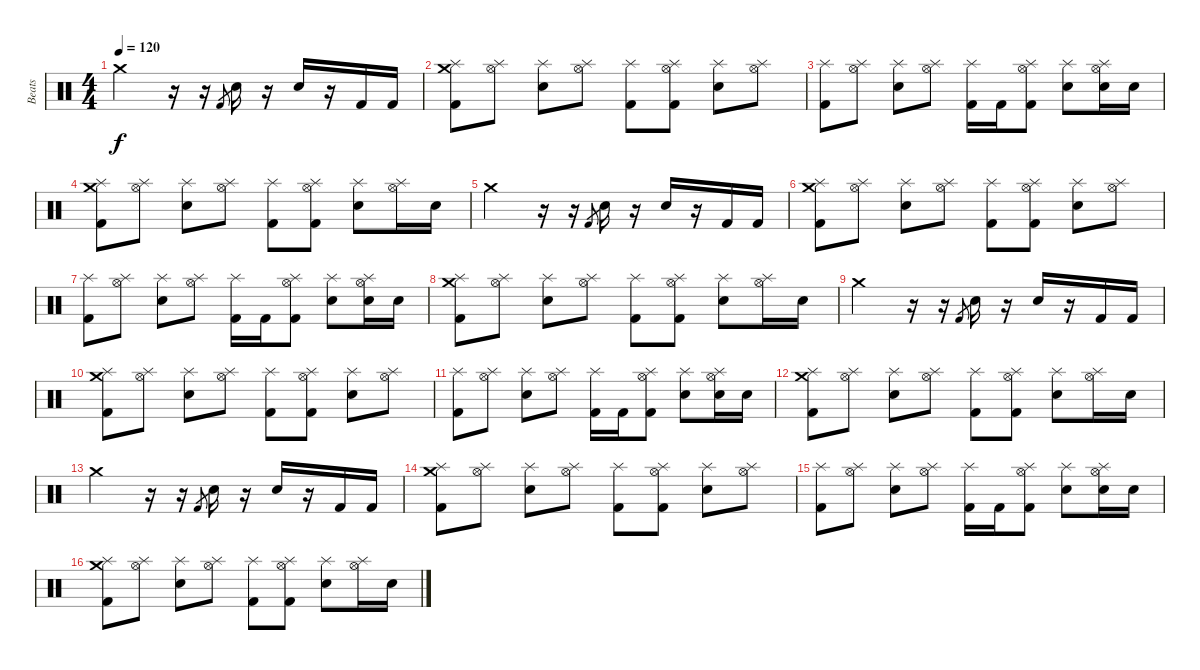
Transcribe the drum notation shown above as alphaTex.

\track ("Beats" "Beats") {instrument percussion}
\staff {score}
\articulation defaults
\ts (4 4)
\tempo 120
\clef neutral
\ks c "Crash medium (hit)".2{dy f}
r.16 r.16 "Kick (hit) 2".8{gr} "Electric Snare (hit)".16 r.16 "Electric Snare (hit)".16 r.16 "Kick (hit) 2".16 "Kick (hit) 2".16 |
("Kick (hit) 2" "Crash medium (hit)" "Splash (hit)").8 ("Hi-Hat (open)" "Splash (hit)").8 ("Electric Snare (hit)" "Splash (hit)").8 ("Hi-Hat (open)" "Splash (hit)").8 ("Kick (hit) 2" "Splash (hit)").8 ("Kick (hit) 2" "Hi-Hat (open)" "Splash (hit)").8 ("Electric Snare (hit)" "Splash (hit)").8 ("Hi-Hat (open)" "Splash (hit)").8 |
("Kick (hit) 2" "Splash (hit)").8 ("Hi-Hat (open)" "Splash (hit)").8 ("Electric Snare (hit)" "Splash (hit)").8 ("Hi-Hat (open)" "Splash (hit)").8 ("Kick (hit) 2" "Splash (hit)").16 "Kick (hit) 2".16 ("Kick (hit) 2" "Hi-Hat (open)" "Splash (hit)").8 ("Electric Snare (hit)" "Splash (hit)").8 ("Electric Snare (hit)" "Hi-Hat (open)" "Splash (hit)").16 "Electric Snare (hit)".16 |
("Kick (hit) 2" "Crash medium (hit)" "Splash (hit)").8 ("Hi-Hat (open)" "Splash (hit)").8 ("Electric Snare (hit)" "Splash (hit)").8 ("Hi-Hat (open)" "Splash (hit)").8 ("Kick (hit) 2" "Splash (hit)").8 ("Kick (hit) 2" "Hi-Hat (open)" "Splash (hit)").8 ("Electric Snare (hit)" "Splash (hit)").8 ("Hi-Hat (open)" "Splash (hit)").16 "Electric Snare (hit)".16 |
"Crash medium (hit)".2 r.16 r.16 "Kick (hit) 2".8{gr} "Electric Snare (hit)".16 r.16 "Electric Snare (hit)".16 r.16 "Kick (hit) 2".16 "Kick (hit) 2".16 |
("Kick (hit) 2" "Crash medium (hit)" "Splash (hit)").8 ("Hi-Hat (open)" "Splash (hit)").8 ("Electric Snare (hit)" "Splash (hit)").8 ("Hi-Hat (open)" "Splash (hit)").8 ("Kick (hit) 2" "Splash (hit)").8 ("Kick (hit) 2" "Hi-Hat (open)" "Splash (hit)").8 ("Electric Snare (hit)" "Splash (hit)").8 ("Hi-Hat (open)" "Splash (hit)").8 |
("Kick (hit) 2" "Splash (hit)").8 ("Hi-Hat (open)" "Splash (hit)").8 ("Electric Snare (hit)" "Splash (hit)").8 ("Hi-Hat (open)" "Splash (hit)").8 ("Kick (hit) 2" "Splash (hit)").16 "Kick (hit) 2".16 ("Kick (hit) 2" "Hi-Hat (open)" "Splash (hit)").8 ("Electric Snare (hit)" "Splash (hit)").8 ("Electric Snare (hit)" "Hi-Hat (open)" "Splash (hit)").16 "Electric Snare (hit)".16 |
("Kick (hit) 2" "Crash medium (hit)" "Splash (hit)").8 ("Hi-Hat (open)" "Splash (hit)").8 ("Electric Snare (hit)" "Splash (hit)").8 ("Hi-Hat (open)" "Splash (hit)").8 ("Kick (hit) 2" "Splash (hit)").8 ("Kick (hit) 2" "Hi-Hat (open)" "Splash (hit)").8 ("Electric Snare (hit)" "Splash (hit)").8 ("Hi-Hat (open)" "Splash (hit)").16 "Electric Snare (hit)".16 |
"Crash medium (hit)".2 r.16 r.16 "Kick (hit) 2".8{gr} "Electric Snare (hit)".16 r.16 "Electric Snare (hit)".16 r.16 "Kick (hit) 2".16 "Kick (hit) 2".16 |
("Kick (hit) 2" "Crash medium (hit)" "Splash (hit)").8 ("Hi-Hat (open)" "Splash (hit)").8 ("Electric Snare (hit)" "Splash (hit)").8 ("Hi-Hat (open)" "Splash (hit)").8 ("Kick (hit) 2" "Splash (hit)").8 ("Kick (hit) 2" "Hi-Hat (open)" "Splash (hit)").8 ("Electric Snare (hit)" "Splash (hit)").8 ("Hi-Hat (open)" "Splash (hit)").8 |
("Kick (hit) 2" "Splash (hit)").8 ("Hi-Hat (open)" "Splash (hit)").8 ("Electric Snare (hit)" "Splash (hit)").8 ("Hi-Hat (open)" "Splash (hit)").8 ("Kick (hit) 2" "Splash (hit)").16 "Kick (hit) 2".16 ("Kick (hit) 2" "Hi-Hat (open)" "Splash (hit)").8 ("Electric Snare (hit)" "Splash (hit)").8 ("Electric Snare (hit)" "Hi-Hat (open)" "Splash (hit)").16 "Electric Snare (hit)".16 |
("Kick (hit) 2" "Crash medium (hit)" "Splash (hit)").8 ("Hi-Hat (open)" "Splash (hit)").8 ("Electric Snare (hit)" "Splash (hit)").8 ("Hi-Hat (open)" "Splash (hit)").8 ("Kick (hit) 2" "Splash (hit)").8 ("Kick (hit) 2" "Hi-Hat (open)" "Splash (hit)").8 ("Electric Snare (hit)" "Splash (hit)").8 ("Hi-Hat (open)" "Splash (hit)").16 "Electric Snare (hit)".16 |
"Crash medium (hit)".2 r.16 r.16 "Kick (hit) 2".8{gr} "Electric Snare (hit)".16 r.16 "Electric Snare (hit)".16 r.16 "Kick (hit) 2".16 "Kick (hit) 2".16 |
("Kick (hit) 2" "Crash medium (hit)" "Splash (hit)").8 ("Hi-Hat (open)" "Splash (hit)").8 ("Electric Snare (hit)" "Splash (hit)").8 ("Hi-Hat (open)" "Splash (hit)").8 ("Kick (hit) 2" "Splash (hit)").8 ("Kick (hit) 2" "Hi-Hat (open)" "Splash (hit)").8 ("Electric Snare (hit)" "Splash (hit)").8 ("Hi-Hat (open)" "Splash (hit)").8 |
("Kick (hit) 2" "Splash (hit)").8 ("Hi-Hat (open)" "Splash (hit)").8 ("Electric Snare (hit)" "Splash (hit)").8 ("Hi-Hat (open)" "Splash (hit)").8 ("Kick (hit) 2" "Splash (hit)").16 "Kick (hit) 2".16 ("Kick (hit) 2" "Hi-Hat (open)" "Splash (hit)").8 ("Electric Snare (hit)" "Splash (hit)").8 ("Electric Snare (hit)" "Hi-Hat (open)" "Splash (hit)").16 "Electric Snare (hit)".16 |
("Kick (hit) 2" "Crash medium (hit)" "Splash (hit)").8 ("Hi-Hat (open)" "Splash (hit)").8 ("Electric Snare (hit)" "Splash (hit)").8 ("Hi-Hat (open)" "Splash (hit)").8 ("Kick (hit) 2" "Splash (hit)").8 ("Kick (hit) 2" "Hi-Hat (open)" "Splash (hit)").8 ("Electric Snare (hit)" "Splash (hit)").8 ("Hi-Hat (open)" "Splash (hit)").16 "Electric Snare (hit)".16
